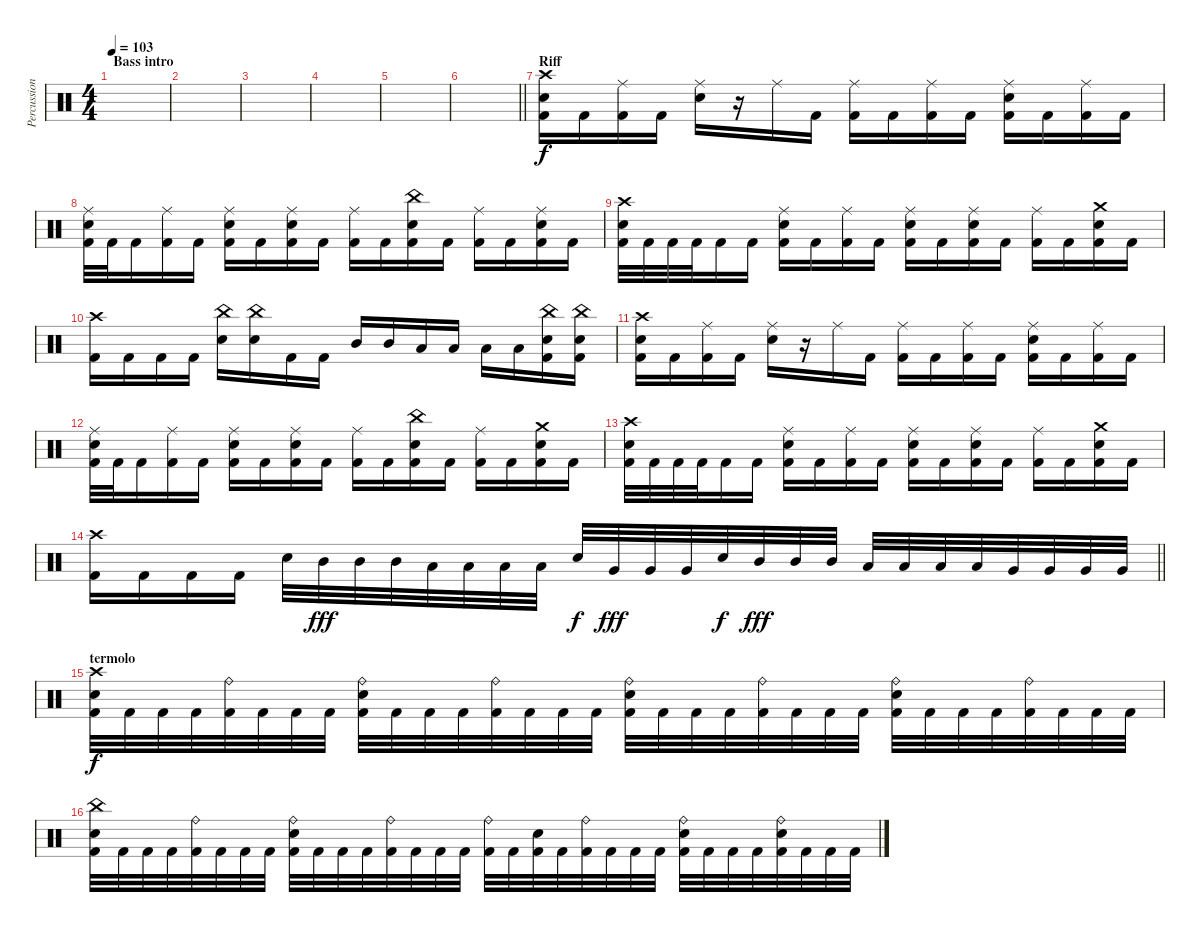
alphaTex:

\track ("Percussion" "Percussion") {instrument percussion}
\staff {score}
\articulation defaults
\ts (4 4)
\section ("" "Bass intro")
\tempo 103
\clef neutral
\ks c
|
|
|
|
|
\barLineRight lightlight
|
\section ("" "Riff")
("Crash high (hit)" "Electric Snare (hit)" "Kick (hit) 2").16 "Kick (hit) 2".16 ("Ride (middle)" "Kick (hit) 2").16 "Kick (hit) 2".16 ("Ride (middle)" "Electric Snare (hit)").16 r.16 "Ride (middle)".16 "Kick (hit) 2".16 ("Ride (middle)" "Kick (hit) 2").16 "Kick (hit) 2".16 ("Ride (middle)" "Kick (hit) 2").16 "Kick (hit) 2".16 ("Ride (middle)" "Electric Snare (hit)" "Kick (hit) 2").16 "Kick (hit) 2".16 ("Ride (middle)" "Kick (hit) 2").16 "Kick (hit) 2".16 |
("Ride (middle)" "Electric Snare (hit)" "Kick (hit) 2").32 "Kick (hit) 2".32 "Kick (hit) 2".16 ("Ride (middle)" "Kick (hit) 2").16 "Kick (hit) 2".16 ("Ride (middle)" "Electric Snare (hit)" "Kick (hit) 2").16 "Kick (hit) 2".16 ("Ride (middle)" "Electric Snare (hit)" "Kick (hit) 2").16 "Kick (hit) 2".16 ("Ride (middle)" "Kick (hit) 2").16 "Kick (hit) 2".16 ("China (hit)" "Electric Snare (hit)" "Kick (hit) 2").16 "Kick (hit) 2".16 ("Ride (middle)" "Kick (hit) 2").16 "Kick (hit) 2".16 ("Ride (middle)" "Electric Snare (hit)" "Kick (hit) 2").16 "Kick (hit) 2".16 |
("Crash high (hit)" "Electric Snare (hit)" "Kick (hit) 2").32 "Kick (hit) 2".32 "Kick (hit) 2".32 "Kick (hit) 2".32 "Kick (hit) 2".16 "Kick (hit) 2".16 ("Ride (middle)" "Electric Snare (hit)" "Kick (hit) 2").16 "Kick (hit) 2".16 ("Ride (middle)" "Kick (hit) 2").16 "Kick (hit) 2".16 ("Ride (middle)" "Electric Snare (hit)" "Kick (hit) 2").16 "Kick (hit) 2".16 ("Ride (middle)" "Electric Snare (hit)" "Kick (hit) 2").16 "Kick (hit) 2".16 ("Ride (middle)" "Kick (hit) 2").16 "Kick (hit) 2".16 ("Crash medium (hit)" "Electric Snare (hit)" "Kick (hit) 2").16 "Kick (hit) 2".16 |
("Crash high (hit)" "Kick (hit) 2").16 "Kick (hit) 2".16 "Kick (hit) 2".16 "Kick (hit) 2".16 ("China (hit)" "Electric Snare (hit)").16 ("China (hit)" "Electric Snare (hit)").16 "Kick (hit) 2".16 "Kick (hit) 2".16 "Mid Tom (hit)".16 "Mid Tom (hit)".16 "Low Tom (hit)".16 "Low Tom (hit)".16 "Low Tom (hit)".16 "Low Tom (hit)".16 ("China (hit)" "Electric Snare (hit)" "Kick (hit) 2").16 ("China (hit)" "Electric Snare (hit)" "Kick (hit) 2").16 |
("Crash high (hit)" "Electric Snare (hit)" "Kick (hit) 2").16 "Kick (hit) 2".16 ("Ride (middle)" "Kick (hit) 2").16 "Kick (hit) 2".16 ("Ride (middle)" "Electric Snare (hit)").16 r.16 "Ride (middle)".16 "Kick (hit) 2".16 ("Ride (middle)" "Kick (hit) 2").16 "Kick (hit) 2".16 ("Ride (middle)" "Kick (hit) 2").16 "Kick (hit) 2".16 ("Ride (middle)" "Electric Snare (hit)" "Kick (hit) 2").16 "Kick (hit) 2".16 ("Ride (middle)" "Kick (hit) 2").16 "Kick (hit) 2".16 |
("Ride (middle)" "Electric Snare (hit)" "Kick (hit) 2").32 "Kick (hit) 2".32 "Kick (hit) 2".16 ("Ride (middle)" "Kick (hit) 2").16 "Kick (hit) 2".16 ("Ride (middle)" "Electric Snare (hit)" "Kick (hit) 2").16 "Kick (hit) 2".16 ("Ride (middle)" "Electric Snare (hit)" "Kick (hit) 2").16 "Kick (hit) 2".16 ("Ride (middle)" "Kick (hit) 2").16 "Kick (hit) 2".16 ("China (hit)" "Electric Snare (hit)" "Kick (hit) 2").16 "Kick (hit) 2".16 ("Ride (middle)" "Kick (hit) 2").16 "Kick (hit) 2".16 ("Crash medium (hit)" "Electric Snare (hit)" "Kick (hit) 2").16 "Kick (hit) 2".16 |
("Crash high (hit)" "Electric Snare (hit)" "Kick (hit) 2").32 "Kick (hit) 2".32 "Kick (hit) 2".32 "Kick (hit) 2".32 "Kick (hit) 2".16 "Kick (hit) 2".16 ("Ride (middle)" "Electric Snare (hit)" "Kick (hit) 2").16 "Kick (hit) 2".16 ("Ride (middle)" "Kick (hit) 2").16 "Kick (hit) 2".16 ("Ride (middle)" "Electric Snare (hit)" "Kick (hit) 2").16 "Kick (hit) 2".16 ("Ride (middle)" "Electric Snare (hit)" "Kick (hit) 2").16 "Kick (hit) 2".16 ("Ride (middle)" "Kick (hit) 2").16 "Kick (hit) 2".16 ("Crash medium (hit)" "Electric Snare (hit)" "Kick (hit) 2").16 "Kick (hit) 2".16 |
\barLineRight lightlight
("Crash high (hit)" "Kick (hit) 2").16 "Kick (hit) 2".16 "Kick (hit) 2".16 "Kick (hit) 2".16 "Electric Snare (hit)".32 "Mid Tom (hit)".32{dy fff} "Mid Tom (hit)".32 "Mid Tom (hit)".32 "Low Tom (hit)".32 "Low Tom (hit)".32 "Low Tom (hit)".32 "Low Tom (hit)".32 "Electric Snare (hit)".32{dy f} "Very Low Tom (hit)".32{dy fff} "Very Low Tom (hit)".32 "Very Low Tom (hit)".32 "Electric Snare (hit)".32{dy f} "Mid Tom (hit)".32{dy fff} "Mid Tom (hit)".32 "Mid Tom (hit)".32 "Low Tom (hit)".32 "Low Tom (hit)".32 "Low Tom (hit)".32 "Low Tom (hit)".32 "Very Low Tom (hit)".32 "Very Low Tom (hit)".32 "Very Low Tom (hit)".32 "Very Low Tom (hit)".32 |
\section ("" "termolo")
("Crash high (hit)" "Electric Snare (hit)" "Kick (hit) 2").32{dy f} "Kick (hit) 2".32 "Kick (hit) 2".32 "Kick (hit) 2".32 ("Ride (bell)" "Kick (hit) 2").32 "Kick (hit) 2".32 "Kick (hit) 2".32 "Kick (hit) 2".32 ("Ride (bell)" "Electric Snare (hit)" "Kick (hit) 2").32 "Kick (hit) 2".32 "Kick (hit) 2".32 "Kick (hit) 2".32 ("Ride (bell)" "Kick (hit) 2").32 "Kick (hit) 2".32 "Kick (hit) 2".32 "Kick (hit) 2".32 ("Ride (bell)" "Electric Snare (hit)" "Kick (hit) 2").32 "Kick (hit) 2".32 "Kick (hit) 2".32 "Kick (hit) 2".32 ("Ride (bell)" "Kick (hit) 2").32 "Kick (hit) 2".32 "Kick (hit) 2".32 "Kick (hit) 2".32 ("Ride (bell)" "Electric Snare (hit)" "Kick (hit) 2").32 "Kick (hit) 2".32 "Kick (hit) 2".32 "Kick (hit) 2".32 ("Ride (bell)" "Kick (hit) 2").32 "Kick (hit) 2".32 "Kick (hit) 2".32 "Kick (hit) 2".32 |
("China (hit)" "Electric Snare (hit)" "Kick (hit) 2").32 "Kick (hit) 2".32 "Kick (hit) 2".32 "Kick (hit) 2".32 ("Ride (bell)" "Kick (hit) 2").32 "Kick (hit) 2".32 "Kick (hit) 2".32 "Kick (hit) 2".32 ("Ride (bell)" "Electric Snare (hit)" "Kick (hit) 2").32 "Kick (hit) 2".32 "Kick (hit) 2".32 "Kick (hit) 2".32 ("Ride (bell)" "Kick (hit) 2").32 "Kick (hit) 2".32 "Kick (hit) 2".32 "Kick (hit) 2".32 ("Ride (bell)" "Kick (hit) 2").32 "Kick (hit) 2".32 ("Electric Snare (hit)" "Kick (hit) 2").32 "Kick (hit) 2".32 ("Ride (bell)" "Kick (hit) 2").32 "Kick (hit) 2".32 "Kick (hit) 2".32 "Kick (hit) 2".32 ("Ride (bell)" "Electric Snare (hit)" "Kick (hit) 2").32 "Kick (hit) 2".32 "Kick (hit) 2".32 "Kick (hit) 2".32 ("Ride (bell)" "Electric Snare (hit)" "Kick (hit) 2").32 "Kick (hit) 2".32 "Kick (hit) 2".32 "Kick (hit) 2".32
